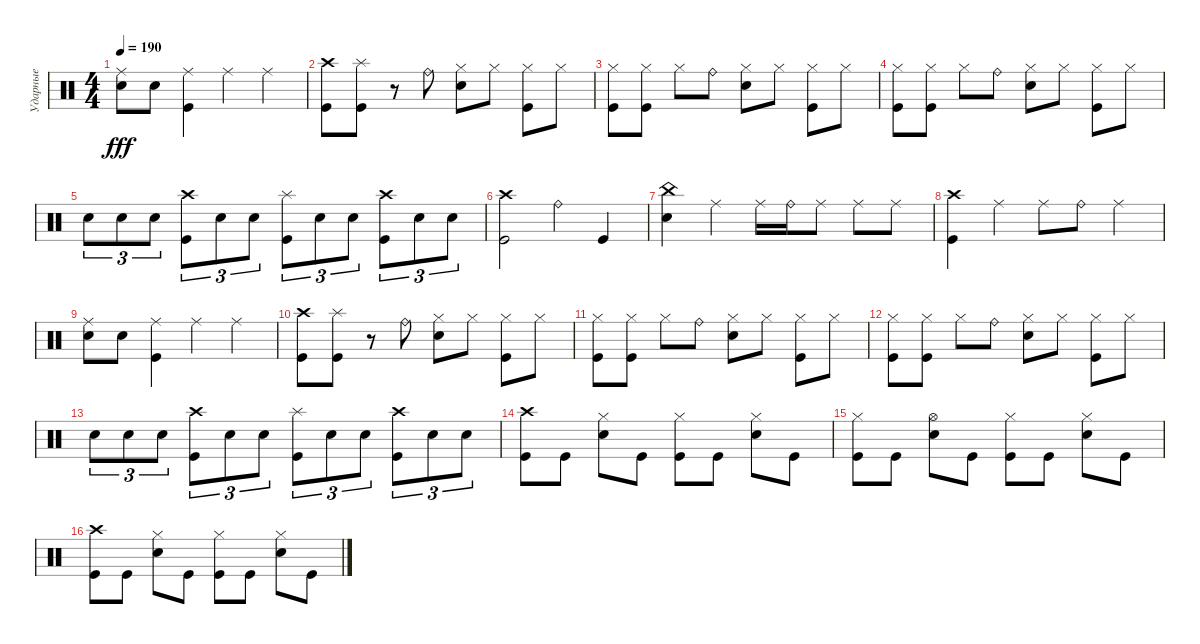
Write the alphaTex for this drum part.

\track ("Ударные" "Ударные") {instrument percussion}
\staff {score}
\articulation defaults
\ts (4 4)
\tempo 190
\clef neutral
\ks c
("Ride (middle)" "Snare (hit) 2").8{dy fff} "Snare (hit) 2".8 ("Ride (middle)" "Kick (hit)").4 "Ride (middle)".4 "Ride (middle)".4 |
("Crash high (hit)" "Kick (hit)").8 ("Splash (hit)" "Kick (hit)").8 r.8 "Ride (bell)".8 ("Hi-Hat (closed)" "Snare (hit) 2").8 "Hi-Hat (closed)".8 ("Hi-Hat (closed)" "Kick (hit)").8 "Hi-Hat (closed)".8 |
("Hi-Hat (closed)" "Kick (hit)").8 ("Hi-Hat (closed)" "Kick (hit)").8 "Hi-Hat (closed)".8 "Ride (bell)".8 ("Hi-Hat (closed)" "Snare (hit) 2").8 "Hi-Hat (closed)".8 ("Hi-Hat (closed)" "Kick (hit)").8 "Hi-Hat (closed)".8 |
("Hi-Hat (closed)" "Kick (hit)").8 ("Hi-Hat (closed)" "Kick (hit)").8 "Hi-Hat (closed)".8 "Ride (bell)".8 ("Hi-Hat (closed)" "Snare (hit) 2").8 "Hi-Hat (closed)".8 ("Hi-Hat (closed)" "Kick (hit)").8 "Hi-Hat (closed)".8 |
"Snare (hit) 2".8{tu (3 2)} "Snare (hit) 2".8{tu (3 2)} "Snare (hit) 2".8{tu (3 2)} ("Crash high (hit)" "Kick (hit)").8{tu (3 2)} "Snare (hit) 2".8{tu (3 2)} "Snare (hit) 2".8{tu (3 2)} ("Splash (hit)" "Kick (hit)").8{tu (3 2)} "Snare (hit) 2".8{tu (3 2)} "Snare (hit) 2".8{tu (3 2)} ("Crash high (hit)" "Kick (hit)").8{tu (3 2)} "Snare (hit) 2".8{tu (3 2)} "Snare (hit) 2".8{tu (3 2)} |
("Kick (hit)" "Crash high (hit)").2 "Ride (bell)".4 "Kick (hit)".4 |
("China (hit)" "Snare (hit) 2").4 "Ride (middle)".4 "Ride (middle)".16 "Ride (bell)".16 "Ride (middle)".8 "Ride (middle)".8 "Ride (middle)".8 |
("Crash high (hit)" "Kick (hit)").4 "Ride (middle)".4 "Ride (middle)".8 "Ride (bell)".8 "Ride (middle)".4 |
("Ride (middle)" "Snare (hit) 2").8 "Snare (hit) 2".8 ("Ride (middle)" "Kick (hit)").4 "Ride (middle)".4 "Ride (middle)".4 |
("Crash high (hit)" "Kick (hit)").8 ("Splash (hit)" "Kick (hit)").8 r.8 "Ride (bell)".8 ("Hi-Hat (closed)" "Snare (hit) 2").8 "Hi-Hat (closed)".8 ("Hi-Hat (closed)" "Kick (hit)").8 "Hi-Hat (closed)".8 |
("Hi-Hat (closed)" "Kick (hit)").8 ("Hi-Hat (closed)" "Kick (hit)").8 "Hi-Hat (closed)".8 "Ride (bell)".8 ("Hi-Hat (closed)" "Snare (hit) 2").8 "Hi-Hat (closed)".8 ("Hi-Hat (closed)" "Kick (hit)").8 "Hi-Hat (closed)".8 |
("Hi-Hat (closed)" "Kick (hit)").8 ("Hi-Hat (closed)" "Kick (hit)").8 "Hi-Hat (closed)".8 "Ride (bell)".8 ("Hi-Hat (closed)" "Snare (hit) 2").8 "Hi-Hat (closed)".8 ("Hi-Hat (closed)" "Kick (hit)").8 "Hi-Hat (closed)".8 |
"Snare (hit) 2".8{tu (3 2)} "Snare (hit) 2".8{tu (3 2)} "Snare (hit) 2".8{tu (3 2)} ("Crash high (hit)" "Kick (hit)").8{tu (3 2)} "Snare (hit) 2".8{tu (3 2)} "Snare (hit) 2".8{tu (3 2)} ("Splash (hit)" "Kick (hit)").8{tu (3 2)} "Snare (hit) 2".8{tu (3 2)} "Snare (hit) 2".8{tu (3 2)} ("Crash high (hit)" "Kick (hit)").8{tu (3 2)} "Snare (hit) 2".8{tu (3 2)} "Snare (hit) 2".8{tu (3 2)} |
("Crash high (hit)" "Kick (hit)").8 "Kick (hit)".8 ("Snare (hit) 2" "Hi-Hat (closed)").8 "Kick (hit)".8 ("Kick (hit)" "Hi-Hat (closed)").8 "Kick (hit)".8 ("Snare (hit) 2" "Hi-Hat (closed)").8 "Kick (hit)".8 |
("Hi-Hat (closed)" "Kick (hit)").8 "Kick (hit)".8 ("Snare (hit) 2" "Hi-Hat (open)").8 "Kick (hit)".8 ("Kick (hit)" "Hi-Hat (closed)").8 "Kick (hit)".8 ("Snare (hit) 2" "Hi-Hat (closed)").8 "Kick (hit)".8 |
("Crash high (hit)" "Kick (hit)").8 "Kick (hit)".8 ("Snare (hit) 2" "Hi-Hat (closed)").8 "Kick (hit)".8 ("Kick (hit)" "Hi-Hat (closed)").8 "Kick (hit)".8 ("Snare (hit) 2" "Hi-Hat (closed)").8 "Kick (hit)".8
